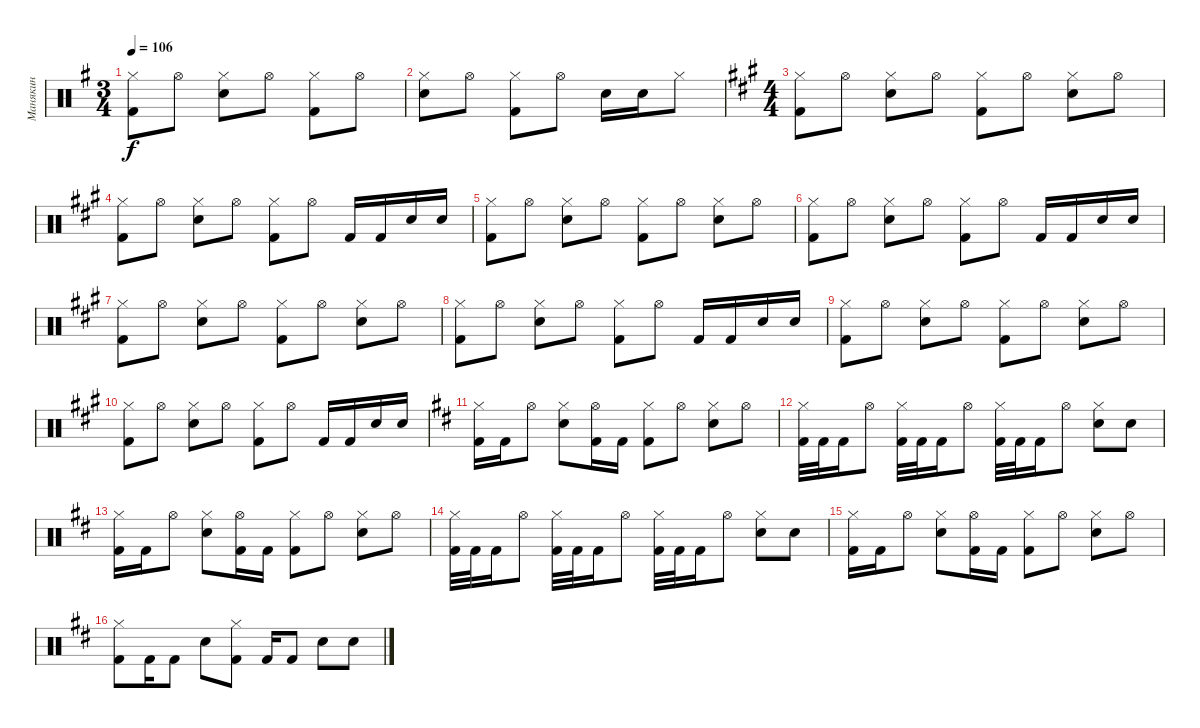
\track ("Манякин" "Манякин") {instrument percussion}
\staff {score}
\articulation defaults
\ts (3 4)
\tempo 106
\clef neutral
\ks g
("Hi-Hat (closed)" "Kick (hit) 2").8{dy f} "Hi-Hat (open)".8 ("Hi-Hat (closed)" "Electric Snare (hit)").8 "Hi-Hat (open)".8 ("Hi-Hat (closed)" "Kick (hit) 2").8 "Hi-Hat (open)".8 |
("Hi-Hat (closed)" "Electric Snare (hit)").8 "Hi-Hat (open)".8 ("Hi-Hat (closed)" "Kick (hit) 2").8 "Hi-Hat (open)".8 "Electric Snare (hit)".16 "Electric Snare (hit)".16 "Hi-Hat (closed)".8 |
\ts (4 4)
\ks a
("Hi-Hat (closed)" "Kick (hit) 2").8 "Hi-Hat (open)".8 ("Hi-Hat (closed)" "Electric Snare (hit)").8 "Hi-Hat (open)".8 ("Hi-Hat (closed)" "Kick (hit) 2").8 "Hi-Hat (open)".8 ("Hi-Hat (closed)" "Electric Snare (hit)").8 "Hi-Hat (open)".8 |
("Hi-Hat (closed)" "Kick (hit) 2").8 "Hi-Hat (open)".8 ("Hi-Hat (closed)" "Electric Snare (hit)").8 "Hi-Hat (open)".8 ("Hi-Hat (closed)" "Kick (hit) 2").8 "Hi-Hat (open)".8 "Kick (hit) 2".16 "Kick (hit) 2".16 "Electric Snare (hit)".16 "Electric Snare (hit)".16 |
("Hi-Hat (closed)" "Kick (hit) 2").8 "Hi-Hat (open)".8 ("Hi-Hat (closed)" "Electric Snare (hit)").8 "Hi-Hat (open)".8 ("Hi-Hat (closed)" "Kick (hit) 2").8 "Hi-Hat (open)".8 ("Hi-Hat (closed)" "Electric Snare (hit)").8 "Hi-Hat (open)".8 |
("Hi-Hat (closed)" "Kick (hit) 2").8 "Hi-Hat (open)".8 ("Hi-Hat (closed)" "Electric Snare (hit)").8 "Hi-Hat (open)".8 ("Hi-Hat (closed)" "Kick (hit) 2").8 "Hi-Hat (open)".8 "Kick (hit) 2".16 "Kick (hit) 2".16 "Electric Snare (hit)".16 "Electric Snare (hit)".16 |
("Hi-Hat (closed)" "Kick (hit) 2").8 "Hi-Hat (open)".8 ("Hi-Hat (closed)" "Electric Snare (hit)").8 "Hi-Hat (open)".8 ("Hi-Hat (closed)" "Kick (hit) 2").8 "Hi-Hat (open)".8 ("Hi-Hat (closed)" "Electric Snare (hit)").8 "Hi-Hat (open)".8 |
("Hi-Hat (closed)" "Kick (hit) 2").8 "Hi-Hat (open)".8 ("Hi-Hat (closed)" "Electric Snare (hit)").8 "Hi-Hat (open)".8 ("Hi-Hat (closed)" "Kick (hit) 2").8 "Hi-Hat (open)".8 "Kick (hit) 2".16 "Kick (hit) 2".16 "Electric Snare (hit)".16 "Electric Snare (hit)".16 |
("Hi-Hat (closed)" "Kick (hit) 2").8 "Hi-Hat (open)".8 ("Hi-Hat (closed)" "Electric Snare (hit)").8 "Hi-Hat (open)".8 ("Hi-Hat (closed)" "Kick (hit) 2").8 "Hi-Hat (open)".8 ("Hi-Hat (closed)" "Electric Snare (hit)").8 "Hi-Hat (open)".8 |
("Hi-Hat (closed)" "Kick (hit) 2").8 "Hi-Hat (open)".8 ("Hi-Hat (closed)" "Electric Snare (hit)").8 "Hi-Hat (open)".8 ("Hi-Hat (closed)" "Kick (hit) 2").8 "Hi-Hat (open)".8 "Kick (hit) 2".16 "Kick (hit) 2".16 "Electric Snare (hit)".16 "Electric Snare (hit)".16 |
\ks d
("Hi-Hat (closed)" "Kick (hit) 2").16 "Kick (hit) 2".16 "Hi-Hat (open)".8 ("Hi-Hat (closed)" "Electric Snare (hit)").8 ("Kick (hit) 2" "Hi-Hat (open)").16 "Kick (hit) 2".16 ("Hi-Hat (closed)" "Kick (hit) 2").8 "Hi-Hat (open)".8 ("Hi-Hat (closed)" "Electric Snare (hit)").8 "Hi-Hat (open)".8 |
("Hi-Hat (closed)" "Kick (hit) 2").32 "Kick (hit) 2".32 "Kick (hit) 2".16 "Hi-Hat (open)".8 ("Hi-Hat (closed)" "Kick (hit) 2").32 "Kick (hit) 2".32 "Kick (hit) 2".16 "Hi-Hat (open)".8 ("Hi-Hat (closed)" "Kick (hit) 2").32 "Kick (hit) 2".32 "Kick (hit) 2".16 "Hi-Hat (open)".8 ("Hi-Hat (closed)" "Electric Snare (hit)").8 "Electric Snare (hit)".8 |
("Hi-Hat (closed)" "Kick (hit) 2").16 "Kick (hit) 2".16 "Hi-Hat (open)".8 ("Hi-Hat (closed)" "Electric Snare (hit)").8 ("Kick (hit) 2" "Hi-Hat (open)").16 "Kick (hit) 2".16 ("Hi-Hat (closed)" "Kick (hit) 2").8 "Hi-Hat (open)".8 ("Hi-Hat (closed)" "Electric Snare (hit)").8 "Hi-Hat (open)".8 |
("Hi-Hat (closed)" "Kick (hit) 2").32 "Kick (hit) 2".32 "Kick (hit) 2".16 "Hi-Hat (open)".8 ("Hi-Hat (closed)" "Kick (hit) 2").32 "Kick (hit) 2".32 "Kick (hit) 2".16 "Hi-Hat (open)".8 ("Hi-Hat (closed)" "Kick (hit) 2").32 "Kick (hit) 2".32 "Kick (hit) 2".16 "Hi-Hat (open)".8 ("Hi-Hat (closed)" "Electric Snare (hit)").8 "Electric Snare (hit)".8 |
("Hi-Hat (closed)" "Kick (hit) 2").16 "Kick (hit) 2".16 "Hi-Hat (open)".8 ("Hi-Hat (closed)" "Electric Snare (hit)").8 ("Kick (hit) 2" "Hi-Hat (open)").16 "Kick (hit) 2".16 ("Hi-Hat (closed)" "Kick (hit) 2").8 "Hi-Hat (open)".8 ("Hi-Hat (closed)" "Electric Snare (hit)").8 "Hi-Hat (open)".8 |
("Hi-Hat (closed)" "Kick (hit) 2").8 "Kick (hit) 2".16 "Kick (hit) 2".8 "Electric Snare (hit)".8 ("Hi-Hat (closed)" "Kick (hit) 2").8 "Kick (hit) 2".16 "Kick (hit) 2".8 "Electric Snare (hit)".8 "Electric Snare (hit)".8
